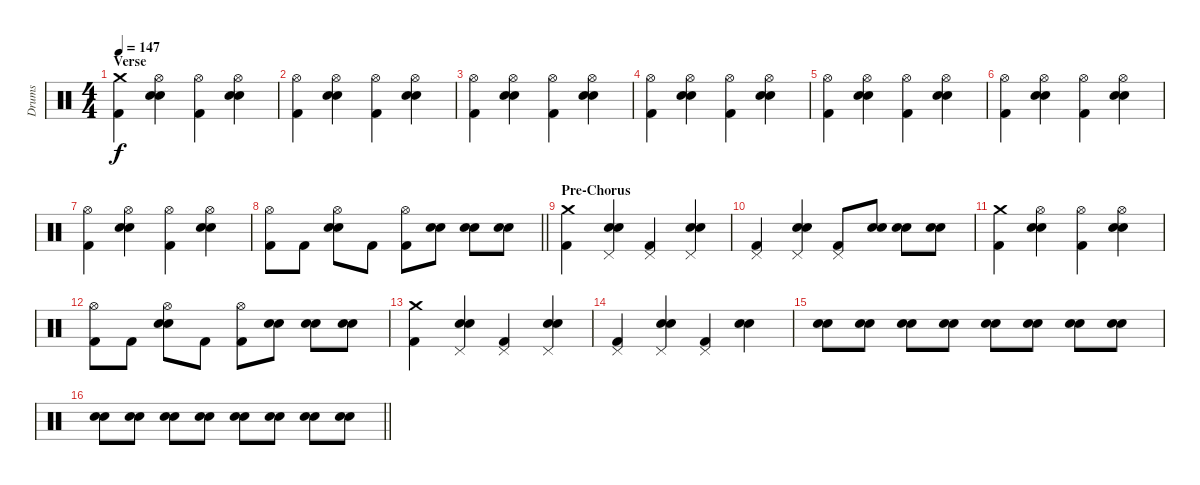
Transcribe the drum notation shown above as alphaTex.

\track ("Drums" "Drums") {instrument percussion}
\staff {score}
\articulation defaults
\ts (4 4)
\section ("" "Verse")
\tempo 147
\clef neutral
\ks c
("Crash medium (hit)" "Kick (hit) 2").4{dy f} ("Hi-Hat (open)" "Electric Snare (hit)" "Snare (hit) 2").4 ("Hi-Hat (open)" "Kick (hit) 2").4 ("Hi-Hat (open)" "Electric Snare (hit)" "Snare (hit) 2").4 |
("Hi-Hat (open)" "Kick (hit) 2").4 ("Hi-Hat (open)" "Electric Snare (hit)" "Snare (hit) 2").4 ("Hi-Hat (open)" "Kick (hit) 2").4 ("Hi-Hat (open)" "Electric Snare (hit)" "Snare (hit) 2").4 |
("Hi-Hat (open)" "Kick (hit) 2").4 ("Hi-Hat (open)" "Electric Snare (hit)" "Snare (hit) 2").4 ("Hi-Hat (open)" "Kick (hit) 2").4 ("Hi-Hat (open)" "Electric Snare (hit)" "Snare (hit) 2").4 |
("Hi-Hat (open)" "Kick (hit) 2").4 ("Hi-Hat (open)" "Electric Snare (hit)" "Snare (hit) 2").4 ("Hi-Hat (open)" "Kick (hit) 2").4 ("Hi-Hat (open)" "Electric Snare (hit)" "Snare (hit) 2").4 |
("Hi-Hat (open)" "Kick (hit) 2").4 ("Hi-Hat (open)" "Electric Snare (hit)" "Snare (hit) 2").4 ("Hi-Hat (open)" "Kick (hit) 2").4 ("Hi-Hat (open)" "Electric Snare (hit)" "Snare (hit) 2").4 |
("Hi-Hat (open)" "Kick (hit) 2").4 ("Hi-Hat (open)" "Electric Snare (hit)" "Snare (hit) 2").4 ("Hi-Hat (open)" "Kick (hit) 2").4 ("Hi-Hat (open)" "Electric Snare (hit)" "Snare (hit) 2").4 |
("Hi-Hat (open)" "Kick (hit) 2").4 ("Hi-Hat (open)" "Electric Snare (hit)" "Snare (hit) 2").4 ("Hi-Hat (open)" "Kick (hit) 2").4 ("Hi-Hat (open)" "Electric Snare (hit)" "Snare (hit) 2").4 |
\barLineRight lightlight
("Hi-Hat (open)" "Kick (hit) 2").8 "Kick (hit) 2".8 ("Hi-Hat (open)" "Electric Snare (hit)" "Snare (hit) 2").8 "Kick (hit) 2".8 ("Hi-Hat (open)" "Kick (hit) 2").8 ("Electric Snare (hit)" "Snare (hit) 2").8 ("Electric Snare (hit)" "Snare (hit) 2").8 ("Electric Snare (hit)" "Snare (hit) 2").8 |
\section ("" "Pre-Chorus")
("Crash medium (hit)" "Kick (hit) 2").4 ("Pedal Hi-Hat (hit)" "Electric Snare (hit)" "Snare (hit) 2").4 ("Pedal Hi-Hat (hit)" "Kick (hit) 2").4 ("Pedal Hi-Hat (hit)" "Electric Snare (hit)" "Snare (hit) 2").4 |
("Pedal Hi-Hat (hit)" "Kick (hit) 2").4 ("Pedal Hi-Hat (hit)" "Electric Snare (hit)" "Snare (hit) 2").4 ("Pedal Hi-Hat (hit)" "Kick (hit) 2").8 ("Electric Snare (hit)" "Snare (hit) 2").8 ("Electric Snare (hit)" "Snare (hit) 2").8 ("Electric Snare (hit)" "Snare (hit) 2").8 |
("Crash medium (hit)" "Kick (hit) 2").4 ("Hi-Hat (open)" "Electric Snare (hit)" "Snare (hit) 2").4 ("Hi-Hat (open)" "Kick (hit) 2").4 ("Hi-Hat (open)" "Electric Snare (hit)" "Snare (hit) 2").4 |
("Hi-Hat (open)" "Kick (hit) 2").8 "Kick (hit) 2".8 ("Hi-Hat (open)" "Electric Snare (hit)" "Snare (hit) 2").8 "Kick (hit) 2".8 ("Hi-Hat (open)" "Kick (hit) 2").8 ("Electric Snare (hit)" "Snare (hit) 2").8 ("Electric Snare (hit)" "Snare (hit) 2").8 ("Electric Snare (hit)" "Snare (hit) 2").8 |
("Crash medium (hit)" "Kick (hit) 2").4 ("Pedal Hi-Hat (hit)" "Electric Snare (hit)" "Snare (hit) 2").4 ("Pedal Hi-Hat (hit)" "Kick (hit) 2").4 ("Pedal Hi-Hat (hit)" "Electric Snare (hit)" "Snare (hit) 2").4 |
("Pedal Hi-Hat (hit)" "Kick (hit) 2").4 ("Pedal Hi-Hat (hit)" "Electric Snare (hit)" "Snare (hit) 2").4 ("Pedal Hi-Hat (hit)" "Kick (hit) 2").4 ("Electric Snare (hit)" "Snare (hit) 2").4 |
("Electric Snare (hit)" "Snare (hit) 2").8 ("Electric Snare (hit)" "Snare (hit) 2").8 ("Electric Snare (hit)" "Snare (hit) 2").8 ("Electric Snare (hit)" "Snare (hit) 2").8 ("Electric Snare (hit)" "Snare (hit) 2").8 ("Electric Snare (hit)" "Snare (hit) 2").8 ("Electric Snare (hit)" "Snare (hit) 2").8 ("Electric Snare (hit)" "Snare (hit) 2").8 |
\barLineRight lightlight
("Electric Snare (hit)" "Snare (hit) 2").8 ("Electric Snare (hit)" "Snare (hit) 2").8 ("Electric Snare (hit)" "Snare (hit) 2").8 ("Electric Snare (hit)" "Snare (hit) 2").8 ("Electric Snare (hit)" "Snare (hit) 2").8 ("Electric Snare (hit)" "Snare (hit) 2").8 ("Electric Snare (hit)" "Snare (hit) 2").8 ("Electric Snare (hit)" "Snare (hit) 2").8
